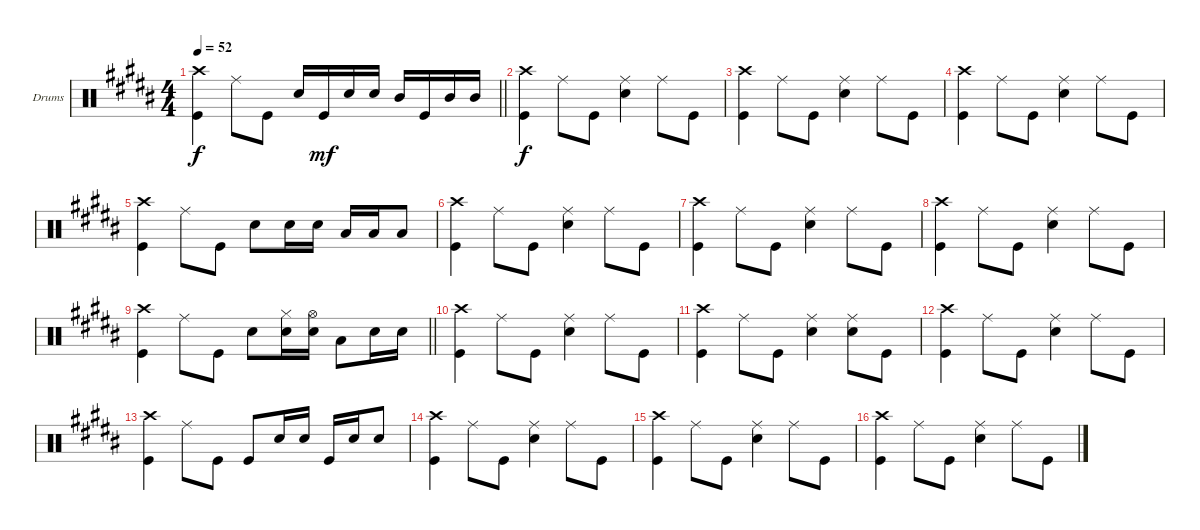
\bracketExtendMode groupsimilarinstruments
\firstSystemTrackNameOrientation horizontal
\otherSystemsTrackNameOrientation horizontal
\track ("Drumkit" "Drums") {solo instrument percussion}
\staff {score}
\articulation defaults
\ts (4 4)
\tempo 52
\clef neutral
\barLineRight lightlight
\ks g#minor
("Crash high (hit)" "Kick (hit)").4{dy f} "Ride (middle)".8 "Kick (hit)".8 "Snare (hit) 2".16 "Kick (hit)".16{dy mf} "Snare (hit) 2".16 "Snare (hit) 2".16 "Mid Tom (hit)".16 "Kick (hit)".16 "Mid Tom (hit)".16 "Mid Tom (hit)".16 |
("Crash high (hit)" "Kick (hit)").4{dy f} "Ride (middle)".8 "Kick (hit)".8 ("Ride (middle)" "Snare (hit) 2").4 "Ride (middle)".8 "Kick (hit)".8 |
("Crash high (hit)" "Kick (hit)").4 "Ride (middle)".8 "Kick (hit)".8 ("Ride (middle)" "Snare (hit) 2").4 "Ride (middle)".8 "Kick (hit)".8 |
("Crash high (hit)" "Kick (hit)").4 "Ride (middle)".8 "Kick (hit)".8 ("Ride (middle)" "Snare (hit) 2").4 "Ride (middle)".8 "Kick (hit)".8 |
("Crash high (hit)" "Kick (hit)").4 "Ride (middle)".8 "Kick (hit)".8 "Snare (hit) 2".8 "Snare (hit) 2".16 "Snare (hit) 2".16 "Low Tom (hit)".16 "Low Tom (hit)".16 "Low Tom (hit)".8 |
("Crash high (hit)" "Kick (hit)").4 "Ride (middle)".8 "Kick (hit)".8 ("Ride (middle)" "Snare (hit) 2").4 "Ride (middle)".8 "Kick (hit)".8 |
("Crash high (hit)" "Kick (hit)").4 "Ride (middle)".8 "Kick (hit)".8 ("Ride (middle)" "Snare (hit) 2").4 "Ride (middle)".8 "Kick (hit)".8 |
("Crash high (hit)" "Kick (hit)").4 "Ride (middle)".8 "Kick (hit)".8 ("Ride (middle)" "Snare (hit) 2").4 "Ride (middle)".8 "Kick (hit)".8 |
\barLineRight lightlight
("Crash high (hit)" "Kick (hit)").4 "Ride (middle)".8 "Kick (hit)".8 "Snare (hit) 2".8 ("Hi-Hat (closed)" "Snare (hit) 2").16 ("Hi-Hat (open)" "Snare (hit) 2").16 "Low Tom (hit)".8 "Snare (hit) 2".16 "Snare (hit) 2".16 |
("Crash high (hit)" "Kick (hit)").4 "Ride (middle)".8 "Kick (hit)".8 ("Ride (middle)" "Snare (hit) 2").4 "Ride (middle)".8 "Kick (hit)".8 |
("Crash high (hit)" "Kick (hit)").4 "Ride (middle)".8 "Kick (hit)".8 ("Ride (middle)" "Snare (hit) 2").4 ("Ride (middle)" "Snare (hit) 2").8 "Kick (hit)".8 |
("Crash high (hit)" "Kick (hit)").4 "Ride (middle)".8 "Kick (hit)".8 ("Ride (middle)" "Snare (hit) 2").4 "Ride (middle)".8 "Kick (hit)".8 |
("Crash high (hit)" "Kick (hit)").4 "Ride (middle)".8 "Kick (hit)".8 "Kick (hit)".8 "Snare (hit) 2".16 "Snare (hit) 2".16 "Kick (hit)".16 "Snare (hit) 2".16 "Snare (hit) 2".8 |
("Crash high (hit)" "Kick (hit)").4 "Ride (middle)".8 "Kick (hit)".8 ("Ride (middle)" "Snare (hit) 2").4 "Ride (middle)".8 "Kick (hit)".8 |
("Crash high (hit)" "Kick (hit)").4 "Ride (middle)".8 "Kick (hit)".8 ("Ride (middle)" "Snare (hit) 2").4 "Ride (middle)".8 "Kick (hit)".8 |
("Crash high (hit)" "Kick (hit)").4 "Ride (middle)".8 "Kick (hit)".8 ("Ride (middle)" "Snare (hit) 2").4 "Ride (middle)".8 "Kick (hit)".8
